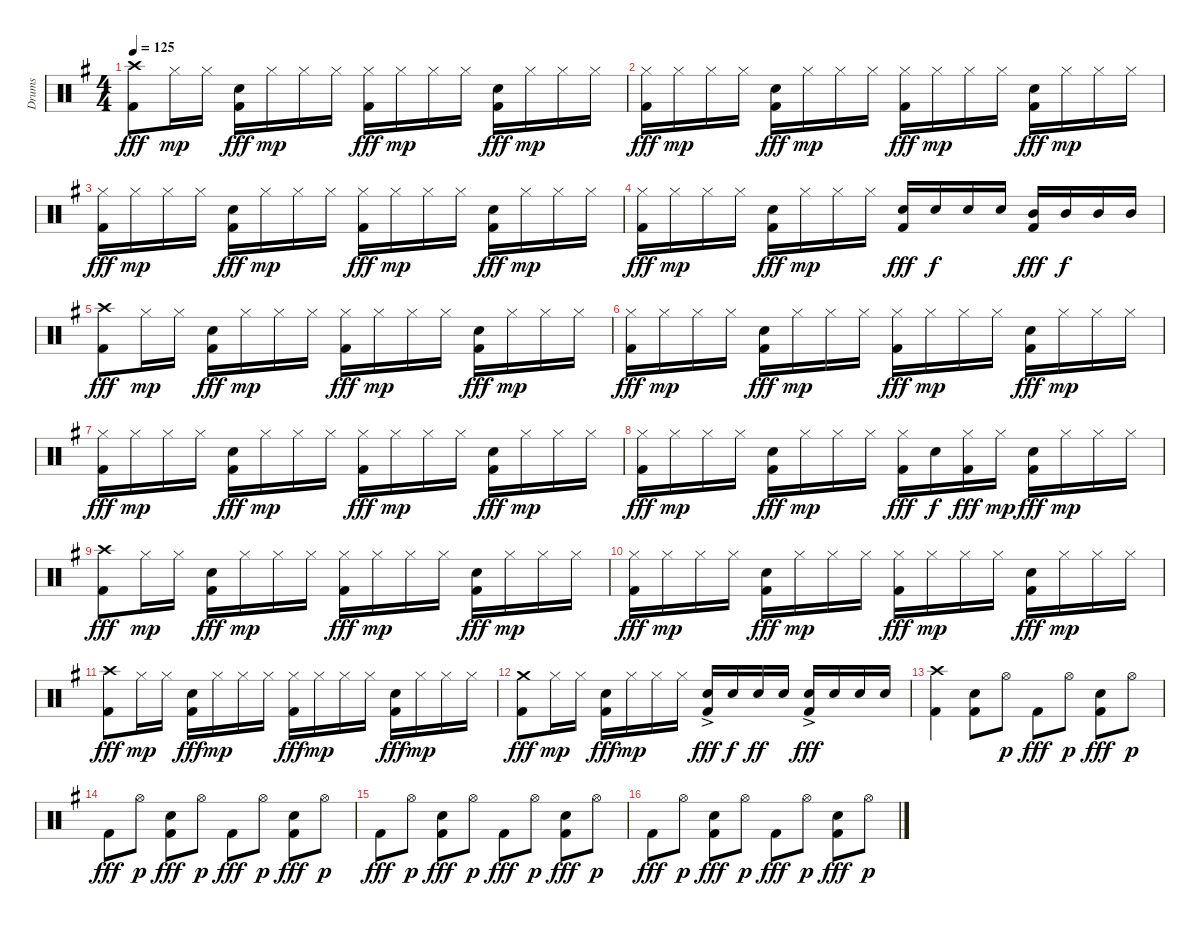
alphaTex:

\track ("Drums" "Drums") {instrument percussion}
\staff {score}
\articulation defaults
\ts (4 4)
\tempo 125
\clef neutral
\ks eminor
("Crash high (hit)" "Kick (hit) 2").8{dy fff} "Hi-Hat (closed)".16{dy mp} "Hi-Hat (closed)".16 ("Electric Snare (hit)" "Kick (hit) 2").16{dy fff} "Hi-Hat (closed)".16{dy mp} "Hi-Hat (closed)".16 "Hi-Hat (closed)".16 ("Hi-Hat (closed)" "Kick (hit) 2").16{dy fff} "Hi-Hat (closed)".16{dy mp} "Hi-Hat (closed)".16 "Hi-Hat (closed)".16 ("Electric Snare (hit)" "Kick (hit) 2").16{dy fff} "Hi-Hat (closed)".16{dy mp} "Hi-Hat (closed)".16 "Hi-Hat (closed)".16 |
("Hi-Hat (closed)" "Kick (hit) 2").16{dy fff} "Hi-Hat (closed)".16{dy mp} "Hi-Hat (closed)".16 "Hi-Hat (closed)".16 ("Electric Snare (hit)" "Kick (hit) 2").16{dy fff} "Hi-Hat (closed)".16{dy mp} "Hi-Hat (closed)".16 "Hi-Hat (closed)".16 ("Hi-Hat (closed)" "Kick (hit) 2").16{dy fff} "Hi-Hat (closed)".16{dy mp} "Hi-Hat (closed)".16 "Hi-Hat (closed)".16 ("Electric Snare (hit)" "Kick (hit) 2").16{dy fff} "Hi-Hat (closed)".16{dy mp} "Hi-Hat (closed)".16 "Hi-Hat (closed)".16 |
("Hi-Hat (closed)" "Kick (hit) 2").16{dy fff} "Hi-Hat (closed)".16{dy mp} "Hi-Hat (closed)".16 "Hi-Hat (closed)".16 ("Electric Snare (hit)" "Kick (hit) 2").16{dy fff} "Hi-Hat (closed)".16{dy mp} "Hi-Hat (closed)".16 "Hi-Hat (closed)".16 ("Hi-Hat (closed)" "Kick (hit) 2").16{dy fff} "Hi-Hat (closed)".16{dy mp} "Hi-Hat (closed)".16 "Hi-Hat (closed)".16 ("Electric Snare (hit)" "Kick (hit) 2").16{dy fff} "Hi-Hat (closed)".16{dy mp} "Hi-Hat (closed)".16 "Hi-Hat (closed)".16 |
("Hi-Hat (closed)" "Kick (hit) 2").16{dy fff} "Hi-Hat (closed)".16{dy mp} "Hi-Hat (closed)".16 "Hi-Hat (closed)".16 ("Electric Snare (hit)" "Kick (hit) 2").16{dy fff} "Hi-Hat (closed)".16{dy mp} "Hi-Hat (closed)".16 "Hi-Hat (closed)".16 ("Electric Snare (hit)" "Kick (hit) 2").16{dy fff} "Electric Snare (hit)".16{dy f} "Electric Snare (hit)".16 "Electric Snare (hit)".16 ("Mid Tom (hit)" "Kick (hit) 2").16{dy fff} "Mid Tom (hit)".16{dy f} "Mid Tom (hit)".16 "Mid Tom (hit)".16 |
("Crash high (hit)" "Kick (hit) 2").8{dy fff} "Hi-Hat (closed)".16{dy mp} "Hi-Hat (closed)".16 ("Electric Snare (hit)" "Kick (hit) 2").16{dy fff} "Hi-Hat (closed)".16{dy mp} "Hi-Hat (closed)".16 "Hi-Hat (closed)".16 ("Hi-Hat (closed)" "Kick (hit) 2").16{dy fff} "Hi-Hat (closed)".16{dy mp} "Hi-Hat (closed)".16 "Hi-Hat (closed)".16 ("Electric Snare (hit)" "Kick (hit) 2").16{dy fff} "Hi-Hat (closed)".16{dy mp} "Hi-Hat (closed)".16 "Hi-Hat (closed)".16 |
("Hi-Hat (closed)" "Kick (hit) 2").16{dy fff} "Hi-Hat (closed)".16{dy mp} "Hi-Hat (closed)".16 "Hi-Hat (closed)".16 ("Electric Snare (hit)" "Kick (hit) 2").16{dy fff} "Hi-Hat (closed)".16{dy mp} "Hi-Hat (closed)".16 "Hi-Hat (closed)".16 ("Hi-Hat (closed)" "Kick (hit) 2").16{dy fff} "Hi-Hat (closed)".16{dy mp} "Hi-Hat (closed)".16 "Hi-Hat (closed)".16 ("Electric Snare (hit)" "Kick (hit) 2").16{dy fff} "Hi-Hat (closed)".16{dy mp} "Hi-Hat (closed)".16 "Hi-Hat (closed)".16 |
("Hi-Hat (closed)" "Kick (hit) 2").16{dy fff} "Hi-Hat (closed)".16{dy mp} "Hi-Hat (closed)".16 "Hi-Hat (closed)".16 ("Electric Snare (hit)" "Kick (hit) 2").16{dy fff} "Hi-Hat (closed)".16{dy mp} "Hi-Hat (closed)".16 "Hi-Hat (closed)".16 ("Hi-Hat (closed)" "Kick (hit) 2").16{dy fff} "Hi-Hat (closed)".16{dy mp} "Hi-Hat (closed)".16 "Hi-Hat (closed)".16 ("Electric Snare (hit)" "Kick (hit) 2").16{dy fff} "Hi-Hat (closed)".16{dy mp} "Hi-Hat (closed)".16 "Hi-Hat (closed)".16 |
("Hi-Hat (closed)" "Kick (hit) 2").16{dy fff} "Hi-Hat (closed)".16{dy mp} "Hi-Hat (closed)".16 "Hi-Hat (closed)".16 ("Electric Snare (hit)" "Kick (hit) 2").16{dy fff} "Hi-Hat (closed)".16{dy mp} "Hi-Hat (closed)".16 "Hi-Hat (closed)".16 ("Hi-Hat (closed)" "Kick (hit) 2").16{dy fff} "Electric Snare (hit)".16{dy f} ("Hi-Hat (closed)" "Kick (hit) 2").16{dy fff} "Hi-Hat (closed)".16{dy mp} ("Electric Snare (hit)" "Kick (hit) 2").16{dy fff} "Hi-Hat (closed)".16{dy mp} "Hi-Hat (closed)".16 "Hi-Hat (closed)".16 |
("Crash high (hit)" "Kick (hit) 2").8{dy fff} "Hi-Hat (closed)".16{dy mp} "Hi-Hat (closed)".16 ("Electric Snare (hit)" "Kick (hit) 2").16{dy fff} "Hi-Hat (closed)".16{dy mp} "Hi-Hat (closed)".16 "Hi-Hat (closed)".16 ("Hi-Hat (closed)" "Kick (hit) 2").16{dy fff} "Hi-Hat (closed)".16{dy mp} "Hi-Hat (closed)".16 "Hi-Hat (closed)".16 ("Electric Snare (hit)" "Kick (hit) 2").16{dy fff} "Hi-Hat (closed)".16{dy mp} "Hi-Hat (closed)".16 "Hi-Hat (closed)".16 |
("Hi-Hat (closed)" "Kick (hit) 2").16{dy fff} "Hi-Hat (closed)".16{dy mp} "Hi-Hat (closed)".16 "Hi-Hat (closed)".16 ("Electric Snare (hit)" "Kick (hit) 2").16{dy fff} "Hi-Hat (closed)".16{dy mp} "Hi-Hat (closed)".16 "Hi-Hat (closed)".16 ("Hi-Hat (closed)" "Kick (hit) 2").16{dy fff} "Hi-Hat (closed)".16{dy mp} "Hi-Hat (closed)".16 "Hi-Hat (closed)".16 ("Electric Snare (hit)" "Kick (hit) 2").16{dy fff} "Hi-Hat (closed)".16{dy mp} "Hi-Hat (closed)".16 "Hi-Hat (closed)".16 |
("Crash high (hit)" "Kick (hit) 2").8{dy fff} "Hi-Hat (closed)".16{dy mp} "Hi-Hat (closed)".16 ("Electric Snare (hit)" "Kick (hit) 2").16{dy fff} "Hi-Hat (closed)".16{dy mp} "Hi-Hat (closed)".16 "Hi-Hat (closed)".16 ("Hi-Hat (closed)" "Kick (hit) 2").16{dy fff} "Hi-Hat (closed)".16{dy mp} "Hi-Hat (closed)".16 "Hi-Hat (closed)".16 ("Electric Snare (hit)" "Kick (hit) 2").16{dy fff} "Hi-Hat (closed)".16{dy mp} "Hi-Hat (closed)".16 "Hi-Hat (closed)".16 |
("Crash medium (hit)" "Kick (hit) 2").8{dy fff} "Hi-Hat (closed)".16{dy mp} "Hi-Hat (closed)".16 ("Electric Snare (hit)" "Kick (hit) 2").16{dy fff} "Hi-Hat (closed)".16{dy mp} "Hi-Hat (closed)".16 "Hi-Hat (closed)".16 ("Electric Snare (hit)"{ac} "Kick (hit) 2").16{dy fff} "Electric Snare (hit)".16{dy f} "Electric Snare (hit)".16{dy ff} "Electric Snare (hit)".16 ("Electric Snare (hit)"{ac} "Kick (hit) 2").16{dy fff} "Electric Snare (hit)".16 "Electric Snare (hit)".16 "Electric Snare (hit)".16 |
("Crash high (hit)" "Kick (hit) 2").4 ("Electric Snare (hit)" "Kick (hit) 2").8 "Hi-Hat (open)".8{dy p} "Kick (hit) 2".8{dy fff} "Hi-Hat (open)".8{dy p} ("Electric Snare (hit)" "Kick (hit) 2").8{dy fff} "Hi-Hat (open)".8{dy p} |
"Kick (hit) 2".8{dy fff} "Hi-Hat (open)".8{dy p} ("Electric Snare (hit)" "Kick (hit) 2").8{dy fff} "Hi-Hat (open)".8{dy p} "Kick (hit) 2".8{dy fff} "Hi-Hat (open)".8{dy p} ("Electric Snare (hit)" "Kick (hit) 2").8{dy fff} "Hi-Hat (open)".8{dy p} |
"Kick (hit) 2".8{dy fff} "Hi-Hat (open)".8{dy p} ("Electric Snare (hit)" "Kick (hit) 2").8{dy fff} "Hi-Hat (open)".8{dy p} "Kick (hit) 2".8{dy fff} "Hi-Hat (open)".8{dy p} ("Electric Snare (hit)" "Kick (hit) 2").8{dy fff} "Hi-Hat (open)".8{dy p} |
"Kick (hit) 2".8{dy fff} "Hi-Hat (open)".8{dy p} ("Electric Snare (hit)" "Kick (hit) 2").8{dy fff} "Hi-Hat (open)".8{dy p} "Kick (hit) 2".8{dy fff} "Hi-Hat (open)".8{dy p} ("Electric Snare (hit)" "Kick (hit) 2").8{dy fff} "Hi-Hat (open)".8{dy p}
